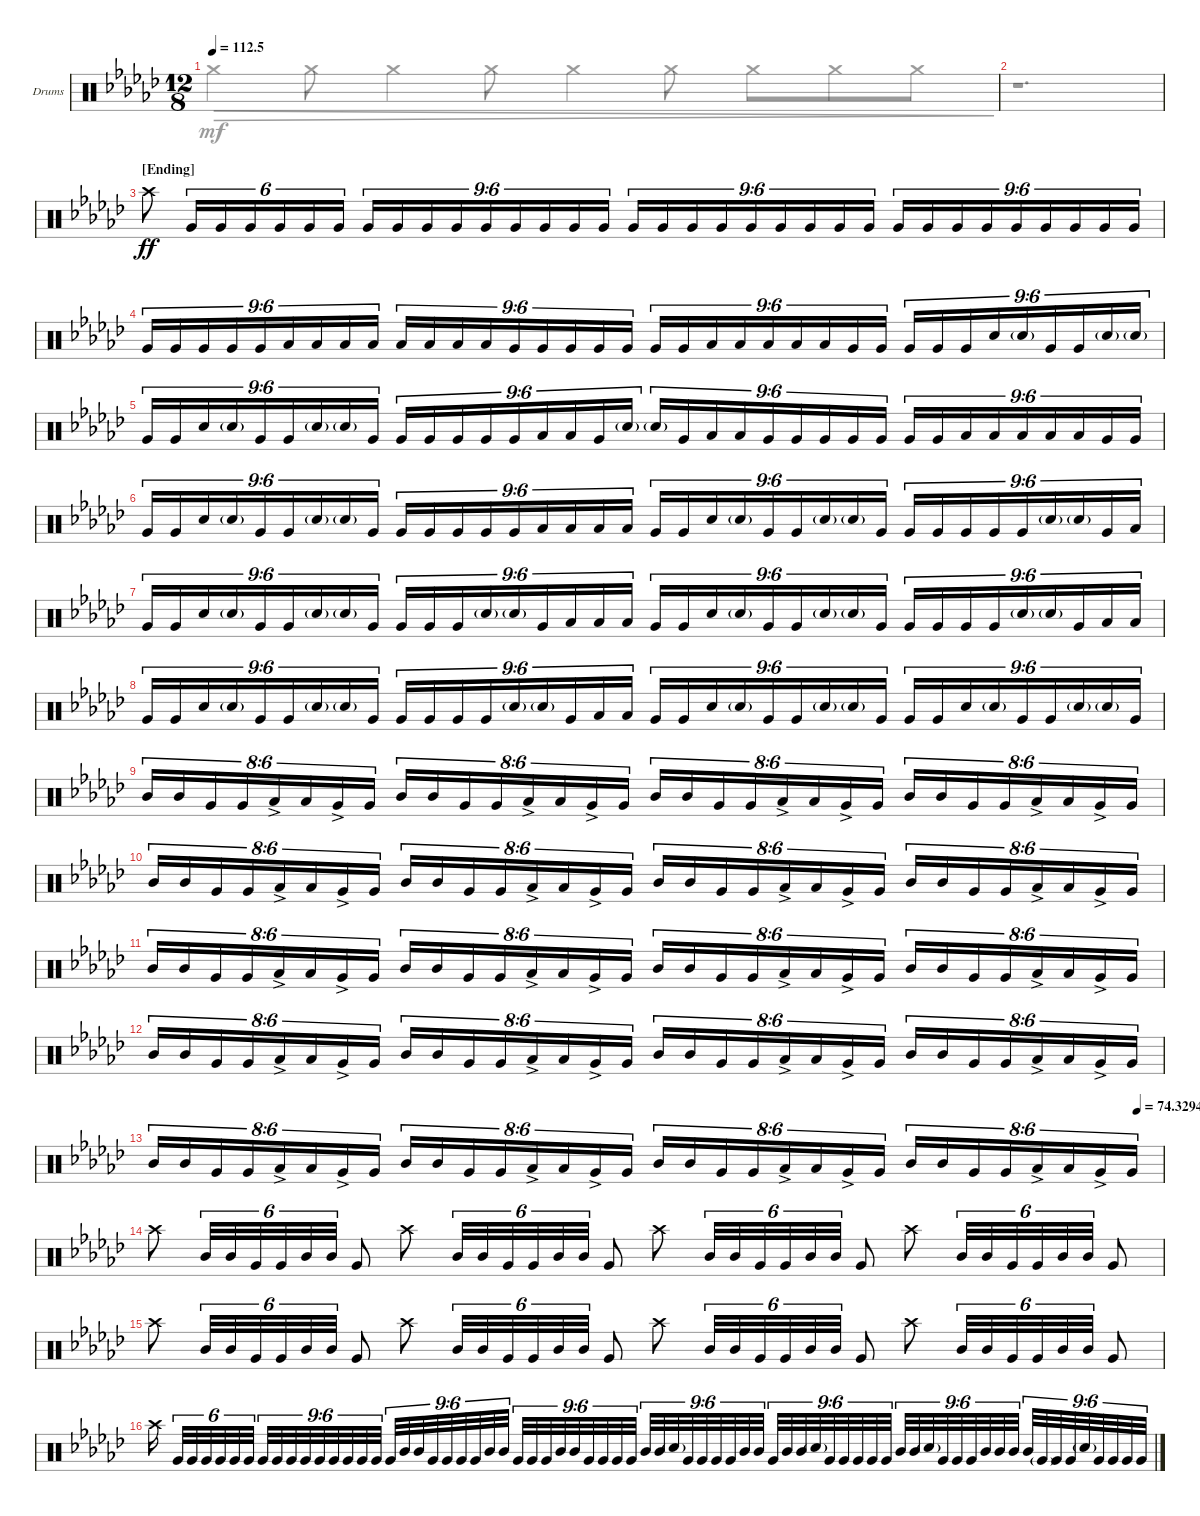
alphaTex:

\bracketExtendMode groupsimilarinstruments
\firstSystemTrackNameOrientation horizontal
\otherSystemsTrackNameOrientation horizontal
\track ("Drumkit" "Drums") {instrument percussion}
\staff {score}
\articulation defaults
\voice
\ts (12 8)
\tempo
112.5
\accidentals auto
\clef neutral
\ottava regular
\simile none
\ks ebminor
|
|
\section ("" "[Ending]")
"Crash high (hit)".8{dy ff} "Very Low Tom (hit)".16{tu (6 4)} "Very Low Tom (hit)".16{tu (6 4)} "Very Low Tom (hit)".16{tu (6 4)} "Very Low Tom (hit)".16{tu (6 4)} "Very Low Tom (hit)".16{tu (6 4)} "Very Low Tom (hit)".16{tu (6 4)} "Very Low Tom (hit)".16{tu (9 6)} "Very Low Tom (hit)".16{tu (9 6)} "Very Low Tom (hit)".16{tu (9 6)} "Very Low Tom (hit)".16{tu (9 6)} "Very Low Tom (hit)".16{tu (9 6)} "Very Low Tom (hit)".16{tu (9 6)} "Very Low Tom (hit)".16{tu (9 6)} "Very Low Tom (hit)".16{tu (9 6)} "Very Low Tom (hit)".16{tu (9 6)} "Very Low Tom (hit)".16{tu (9 6)} "Very Low Tom (hit)".16{tu (9 6)} "Very Low Tom (hit)".16{tu (9 6)} "Very Low Tom (hit)".16{tu (9 6)} "Very Low Tom (hit)".16{tu (9 6)} "Very Low Tom (hit)".16{tu (9 6)} "Very Low Tom (hit)".16{tu (9 6)} "Very Low Tom (hit)".16{tu (9 6)} "Very Low Tom (hit)".16{tu (9 6)} "Very Low Tom (hit)".16{tu (9 6)} "Very Low Tom (hit)".16{tu (9 6)} "Very Low Tom (hit)".16{tu (9 6)} "Very Low Tom (hit)".16{tu (9 6)} "Very Low Tom (hit)".16{tu (9 6)} "Very Low Tom (hit)".16{tu (9 6)} "Very Low Tom (hit)".16{tu (9 6)} "Very Low Tom (hit)".16{tu (9 6)} "Very Low Tom (hit)".16{tu (9 6)} |
"Very Low Tom (hit)".16{tu (9 6)} "Very Low Tom (hit)".16{tu (9 6)} "Very Low Tom (hit)".16{tu (9 6)} "Very Low Tom (hit)".16{tu (9 6)} "Very Low Tom (hit)".16{tu (9 6)} "Low Tom (hit)".16{tu (9 6)} "Low Tom (hit)".16{tu (9 6)} "Low Tom (hit)".16{tu (9 6)} "Low Tom (hit)".16{tu (9 6)} "Low Tom (hit)".16{tu (9 6)} "Low Tom (hit)".16{tu (9 6)} "Low Tom (hit)".16{tu (9 6)} "Low Tom (hit)".16{tu (9 6)} "Very Low Tom (hit)".16{tu (9 6)} "Very Low Tom (hit)".16{tu (9 6)} "Very Low Tom (hit)".16{tu (9 6)} "Very Low Tom (hit)".16{tu (9 6)} "Very Low Tom (hit)".16{tu (9 6)} "Very Low Tom (hit)".16{tu (9 6)} "Very Low Tom (hit)".16{tu (9 6)} "Low Tom (hit)".16{tu (9 6)} "Low Tom (hit)".16{tu (9 6)} "Low Tom (hit)".16{tu (9 6)} "Low Tom (hit)".16{tu (9 6)} "Low Tom (hit)".16{tu (9 6)} "Very Low Tom (hit)".16{tu (9 6)} "Very Low Tom (hit)".16{tu (9 6)} "Very Low Tom (hit)".16{tu (9 6)} "Very Low Tom (hit)".16{tu (9 6)} "Very Low Tom (hit)".16{tu (9 6)} "Snare (hit) 2".16{tu (9 6)} "Snare (hit) 2"{g}.16{tu (9 6)} "Very Low Tom (hit)".16{tu (9 6)} "Very Low Tom (hit)".16{tu (9 6)} "Snare (hit) 2"{g}.16{tu (9 6)} "Snare (hit) 2"{g}.16{tu (9 6)} |
"Very Low Tom (hit)".16{tu (9 6)} "Very Low Tom (hit)".16{tu (9 6)} "Snare (hit) 2".16{tu (9 6)} "Snare (hit) 2"{g}.16{tu (9 6)} "Very Low Tom (hit)".16{tu (9 6)} "Very Low Tom (hit)".16{tu (9 6)} "Snare (hit) 2"{g}.16{tu (9 6)} "Snare (hit) 2"{g}.16{tu (9 6)} "Very Low Tom (hit)".16{tu (9 6)} "Very Low Tom (hit)".16{tu (9 6)} "Very Low Tom (hit)".16{tu (9 6)} "Very Low Tom (hit)".16{tu (9 6)} "Very Low Tom (hit)".16{tu (9 6)} "Very Low Tom (hit)".16{tu (9 6)} "Low Tom (hit)".16{tu (9 6)} "Low Tom (hit)".16{tu (9 6)} "Very Low Tom (hit)".16{tu (9 6)} "Snare (hit) 2"{g}.16{tu (9 6)} "Snare (hit) 2"{g}.16{tu (9 6)} "Very Low Tom (hit)".16{tu (9 6)} "Low Tom (hit)".16{tu (9 6)} "Low Tom (hit)".16{tu (9 6)} "Very Low Tom (hit)".16{tu (9 6)} "Very Low Tom (hit)".16{tu (9 6)} "Very Low Tom (hit)".16{tu (9 6)} "Very Low Tom (hit)".16{tu (9 6)} "Very Low Tom (hit)".16{tu (9 6)} "Very Low Tom (hit)".16{tu (9 6)} "Very Low Tom (hit)".16{tu (9 6)} "Low Tom (hit)".16{tu (9 6)} "Low Tom (hit)".16{tu (9 6)} "Low Tom (hit)".16{tu (9 6)} "Low Tom (hit)".16{tu (9 6)} "Low Tom (hit)".16{tu (9 6)} "Very Low Tom (hit)".16{tu (9 6)} "Very Low Tom (hit)".16{tu (9 6)} |
"Very Low Tom (hit)".16{tu (9 6)} "Very Low Tom (hit)".16{tu (9 6)} "Snare (hit) 2".16{tu (9 6)} "Snare (hit) 2"{g}.16{tu (9 6)} "Very Low Tom (hit)".16{tu (9 6)} "Very Low Tom (hit)".16{tu (9 6)} "Snare (hit) 2"{g}.16{tu (9 6)} "Snare (hit) 2"{g}.16{tu (9 6)} "Very Low Tom (hit)".16{tu (9 6)} "Very Low Tom (hit)".16{tu (9 6)} "Very Low Tom (hit)".16{tu (9 6)} "Very Low Tom (hit)".16{tu (9 6)} "Very Low Tom (hit)".16{tu (9 6)} "Very Low Tom (hit)".16{tu (9 6)} "Low Tom (hit)".16{tu (9 6)} "Low Tom (hit)".16{tu (9 6)} "Low Tom (hit)".16{tu (9 6)} "Low Tom (hit)".16{tu (9 6)} "Very Low Tom (hit)".16{tu (9 6)} "Very Low Tom (hit)".16{tu (9 6)} "Snare (hit) 2".16{tu (9 6)} "Snare (hit) 2"{g}.16{tu (9 6)} "Very Low Tom (hit)".16{tu (9 6)} "Very Low Tom (hit)".16{tu (9 6)} "Snare (hit) 2"{g}.16{tu (9 6)} "Snare (hit) 2"{g}.16{tu (9 6)} "Very Low Tom (hit)".16{tu (9 6)} "Very Low Tom (hit)".16{tu (9 6)} "Very Low Tom (hit)".16{tu (9 6)} "Very Low Tom (hit)".16{tu (9 6)} "Very Low Tom (hit)".16{tu (9 6)} "Very Low Tom (hit)".16{tu (9 6)} "Snare (hit) 2"{g}.16{tu (9 6)} "Snare (hit) 2"{g}.16{tu (9 6)} "Very Low Tom (hit)".16{tu (9 6)} "Low Tom (hit)".16{tu (9 6)} |
"Very Low Tom (hit)".16{tu (9 6)} "Very Low Tom (hit)".16{tu (9 6)} "Snare (hit) 2".16{tu (9 6)} "Snare (hit) 2"{g}.16{tu (9 6)} "Very Low Tom (hit)".16{tu (9 6)} "Very Low Tom (hit)".16{tu (9 6)} "Snare (hit) 2"{g}.16{tu (9 6)} "Snare (hit) 2"{g}.16{tu (9 6)} "Very Low Tom (hit)".16{tu (9 6)} "Very Low Tom (hit)".16{tu (9 6)} "Very Low Tom (hit)".16{tu (9 6)} "Very Low Tom (hit)".16{tu (9 6)} "Snare (hit) 2"{g}.16{tu (9 6)} "Snare (hit) 2"{g}.16{tu (9 6)} "Very Low Tom (hit)".16{tu (9 6)} "Low Tom (hit)".16{tu (9 6)} "Low Tom (hit)".16{tu (9 6)} "Low Tom (hit)".16{tu (9 6)} "Very Low Tom (hit)".16{tu (9 6)} "Very Low Tom (hit)".16{tu (9 6)} "Snare (hit) 2".16{tu (9 6)} "Snare (hit) 2"{g}.16{tu (9 6)} "Very Low Tom (hit)".16{tu (9 6)} "Very Low Tom (hit)".16{tu (9 6)} "Snare (hit) 2"{g}.16{tu (9 6)} "Snare (hit) 2"{g}.16{tu (9 6)} "Very Low Tom (hit)".16{tu (9 6)} "Very Low Tom (hit)".16{tu (9 6)} "Very Low Tom (hit)".16{tu (9 6)} "Very Low Tom (hit)".16{tu (9 6)} "Very Low Tom (hit)".16{tu (9 6)} "Snare (hit) 2"{g}.16{tu (9 6)} "Snare (hit) 2"{g}.16{tu (9 6)} "Very Low Tom (hit)".16{tu (9 6)} "Low Tom (hit)".16{tu (9 6)} "Low Tom (hit)".16{tu (9 6)} |
"Very Low Tom (hit)".16{tu (9 6)} "Very Low Tom (hit)".16{tu (9 6)} "Snare (hit) 2".16{tu (9 6)} "Snare (hit) 2"{g}.16{tu (9 6)} "Very Low Tom (hit)".16{tu (9 6)} "Very Low Tom (hit)".16{tu (9 6)} "Snare (hit) 2"{g}.16{tu (9 6)} "Snare (hit) 2"{g}.16{tu (9 6)} "Very Low Tom (hit)".16{tu (9 6)} "Very Low Tom (hit)".16{tu (9 6)} "Very Low Tom (hit)".16{tu (9 6)} "Very Low Tom (hit)".16{tu (9 6)} "Very Low Tom (hit)".16{tu (9 6)} "Snare (hit) 2"{g}.16{tu (9 6)} "Snare (hit) 2"{g}.16{tu (9 6)} "Very Low Tom (hit)".16{tu (9 6)} "Low Tom (hit)".16{tu (9 6)} "Low Tom (hit)".16{tu (9 6)} "Very Low Tom (hit)".16{tu (9 6)} "Very Low Tom (hit)".16{tu (9 6)} "Snare (hit) 2".16{tu (9 6)} "Snare (hit) 2"{g}.16{tu (9 6)} "Very Low Tom (hit)".16{tu (9 6)} "Very Low Tom (hit)".16{tu (9 6)} "Snare (hit) 2"{g}.16{tu (9 6)} "Snare (hit) 2"{g}.16{tu (9 6)} "Very Low Tom (hit)".16{tu (9 6)} "Very Low Tom (hit)".16{tu (9 6)} "Very Low Tom (hit)".16{tu (9 6)} "Snare (hit) 2".16{tu (9 6)} "Snare (hit) 2"{g}.16{tu (9 6)} "Very Low Tom (hit)".16{tu (9 6)} "Very Low Tom (hit)".16{tu (9 6)} "Snare (hit) 2"{g}.16{tu (9 6)} "Snare (hit) 2"{g}.16{tu (9 6)} "Very Low Tom (hit)".16{tu (9 6)} |
"Mid Tom (hit)".16{tu (8 6)} "Mid Tom (hit)".16{tu (8 6)} "Very Low Tom (hit)".16{tu (8 6)} "Very Low Tom (hit)".16{tu (8 6)} "Low Tom (hit)"{ac}.16{tu (8 6)} "Low Tom (hit)".16{tu (8 6)} "Very Low Tom (hit)"{ac}.16{tu (8 6)} "Very Low Tom (hit)".16{tu (8 6)} "Mid Tom (hit)".16{tu (8 6)} "Mid Tom (hit)".16{tu (8 6)} "Very Low Tom (hit)".16{tu (8 6)} "Very Low Tom (hit)".16{tu (8 6)} "Low Tom (hit)"{ac}.16{tu (8 6)} "Low Tom (hit)".16{tu (8 6)} "Very Low Tom (hit)"{ac}.16{tu (8 6)} "Very Low Tom (hit)".16{tu (8 6)} "Mid Tom (hit)".16{tu (8 6)} "Mid Tom (hit)".16{tu (8 6)} "Very Low Tom (hit)".16{tu (8 6)} "Very Low Tom (hit)".16{tu (8 6)} "Low Tom (hit)"{ac}.16{tu (8 6)} "Low Tom (hit)".16{tu (8 6)} "Very Low Tom (hit)"{ac}.16{tu (8 6)} "Very Low Tom (hit)".16{tu (8 6)} "Mid Tom (hit)".16{tu (8 6)} "Mid Tom (hit)".16{tu (8 6)} "Very Low Tom (hit)".16{tu (8 6)} "Very Low Tom (hit)".16{tu (8 6)} "Low Tom (hit)"{ac}.16{tu (8 6)} "Low Tom (hit)".16{tu (8 6)} "Very Low Tom (hit)"{ac}.16{tu (8 6)} "Very Low Tom (hit)".16{tu (8 6)} |
"Mid Tom (hit)".16{tu (8 6)} "Mid Tom (hit)".16{tu (8 6)} "Very Low Tom (hit)".16{tu (8 6)} "Very Low Tom (hit)".16{tu (8 6)} "Low Tom (hit)"{ac}.16{tu (8 6)} "Low Tom (hit)".16{tu (8 6)} "Very Low Tom (hit)"{ac}.16{tu (8 6)} "Very Low Tom (hit)".16{tu (8 6)} "Mid Tom (hit)".16{tu (8 6)} "Mid Tom (hit)".16{tu (8 6)} "Very Low Tom (hit)".16{tu (8 6)} "Very Low Tom (hit)".16{tu (8 6)} "Low Tom (hit)"{ac}.16{tu (8 6)} "Low Tom (hit)".16{tu (8 6)} "Very Low Tom (hit)"{ac}.16{tu (8 6)} "Very Low Tom (hit)".16{tu (8 6)} "Mid Tom (hit)".16{tu (8 6)} "Mid Tom (hit)".16{tu (8 6)} "Very Low Tom (hit)".16{tu (8 6)} "Very Low Tom (hit)".16{tu (8 6)} "Low Tom (hit)"{ac}.16{tu (8 6)} "Low Tom (hit)".16{tu (8 6)} "Very Low Tom (hit)"{ac}.16{tu (8 6)} "Very Low Tom (hit)".16{tu (8 6)} "Mid Tom (hit)".16{tu (8 6)} "Mid Tom (hit)".16{tu (8 6)} "Very Low Tom (hit)".16{tu (8 6)} "Very Low Tom (hit)".16{tu (8 6)} "Low Tom (hit)"{ac}.16{tu (8 6)} "Low Tom (hit)".16{tu (8 6)} "Very Low Tom (hit)"{ac}.16{tu (8 6)} "Very Low Tom (hit)".16{tu (8 6)} |
"Mid Tom (hit)".16{tu (8 6)} "Mid Tom (hit)".16{tu (8 6)} "Very Low Tom (hit)".16{tu (8 6)} "Very Low Tom (hit)".16{tu (8 6)} "Low Tom (hit)"{ac}.16{tu (8 6)} "Low Tom (hit)".16{tu (8 6)} "Very Low Tom (hit)"{ac}.16{tu (8 6)} "Very Low Tom (hit)".16{tu (8 6)} "Mid Tom (hit)".16{tu (8 6)} "Mid Tom (hit)".16{tu (8 6)} "Very Low Tom (hit)".16{tu (8 6)} "Very Low Tom (hit)".16{tu (8 6)} "Low Tom (hit)"{ac}.16{tu (8 6)} "Low Tom (hit)".16{tu (8 6)} "Very Low Tom (hit)"{ac}.16{tu (8 6)} "Very Low Tom (hit)".16{tu (8 6)} "Mid Tom (hit)".16{tu (8 6)} "Mid Tom (hit)".16{tu (8 6)} "Very Low Tom (hit)".16{tu (8 6)} "Very Low Tom (hit)".16{tu (8 6)} "Low Tom (hit)"{ac}.16{tu (8 6)} "Low Tom (hit)".16{tu (8 6)} "Very Low Tom (hit)"{ac}.16{tu (8 6)} "Very Low Tom (hit)".16{tu (8 6)} "Mid Tom (hit)".16{tu (8 6)} "Mid Tom (hit)".16{tu (8 6)} "Very Low Tom (hit)".16{tu (8 6)} "Very Low Tom (hit)".16{tu (8 6)} "Low Tom (hit)"{ac}.16{tu (8 6)} "Low Tom (hit)".16{tu (8 6)} "Very Low Tom (hit)"{ac}.16{tu (8 6)} "Very Low Tom (hit)".16{tu (8 6)} |
"Mid Tom (hit)".16{tu (8 6)} "Mid Tom (hit)".16{tu (8 6)} "Very Low Tom (hit)".16{tu (8 6)} "Very Low Tom (hit)".16{tu (8 6)} "Low Tom (hit)"{ac}.16{tu (8 6)} "Low Tom (hit)".16{tu (8 6)} "Very Low Tom (hit)"{ac}.16{tu (8 6)} "Very Low Tom (hit)".16{tu (8 6)} "Mid Tom (hit)".16{tu (8 6)} "Mid Tom (hit)".16{tu (8 6)} "Very Low Tom (hit)".16{tu (8 6)} "Very Low Tom (hit)".16{tu (8 6)} "Low Tom (hit)"{ac}.16{tu (8 6)} "Low Tom (hit)".16{tu (8 6)} "Very Low Tom (hit)"{ac}.16{tu (8 6)} "Very Low Tom (hit)".16{tu (8 6)} "Mid Tom (hit)".16{tu (8 6)} "Mid Tom (hit)".16{tu (8 6)} "Very Low Tom (hit)".16{tu (8 6)} "Very Low Tom (hit)".16{tu (8 6)} "Low Tom (hit)"{ac}.16{tu (8 6)} "Low Tom (hit)".16{tu (8 6)} "Very Low Tom (hit)"{ac}.16{tu (8 6)} "Very Low Tom (hit)".16{tu (8 6)} "Mid Tom (hit)".16{tu (8 6)} "Mid Tom (hit)".16{tu (8 6)} "Very Low Tom (hit)".16{tu (8 6)} "Very Low Tom (hit)".16{tu (8 6)} "Low Tom (hit)"{ac}.16{tu (8 6)} "Low Tom (hit)".16{tu (8 6)} "Very Low Tom (hit)"{ac}.16{tu (8 6)} "Very Low Tom (hit)".16{tu (8 6)} |
\tempo (74.3294 0.975)
"Mid Tom (hit)".16{tu (8 6)} "Mid Tom (hit)".16{tu (8 6)} "Very Low Tom (hit)".16{tu (8 6)} "Very Low Tom (hit)".16{tu (8 6)} "Low Tom (hit)"{ac}.16{tu (8 6)} "Low Tom (hit)".16{tu (8 6)} "Very Low Tom (hit)"{ac}.16{tu (8 6)} "Very Low Tom (hit)".16{tu (8 6)} "Mid Tom (hit)".16{tu (8 6)} "Mid Tom (hit)".16{tu (8 6)} "Very Low Tom (hit)".16{tu (8 6)} "Very Low Tom (hit)".16{tu (8 6)} "Low Tom (hit)"{ac}.16{tu (8 6)} "Low Tom (hit)".16{tu (8 6)} "Very Low Tom (hit)"{ac}.16{tu (8 6)} "Very Low Tom (hit)".16{tu (8 6)} "Mid Tom (hit)".16{tu (8 6)} "Mid Tom (hit)".16{tu (8 6)} "Very Low Tom (hit)".16{tu (8 6)} "Very Low Tom (hit)".16{tu (8 6)} "Low Tom (hit)"{ac}.16{tu (8 6)} "Low Tom (hit)".16{tu (8 6)} "Very Low Tom (hit)"{ac}.16{tu (8 6)} "Very Low Tom (hit)".16{tu (8 6)} "Mid Tom (hit)".16{tu (8 6)} "Mid Tom (hit)".16{tu (8 6)} "Very Low Tom (hit)".16{tu (8 6)} "Very Low Tom (hit)".16{tu (8 6)} "Low Tom (hit)"{ac}.16{tu (8 6)} "Low Tom (hit)".16{tu (8 6)} "Very Low Tom (hit)"{ac}.16{tu (8 6)} "Very Low Tom (hit)".16{tu (8 6)} |
"Crash high (hit)".8 "Mid Tom (hit)".32{tu (6 4)} "Mid Tom (hit)".32{tu (6 4)} "Very Low Tom (hit)".32{tu (6 4)} "Very Low Tom (hit)".32{tu (6 4)} "Mid Tom (hit)".32{tu (6 4)} "Mid Tom (hit)".32{tu (6 4)} "Very Low Tom (hit)".8 "Crash high (hit)".8 "Mid Tom (hit)".32{tu (6 4)} "Mid Tom (hit)".32{tu (6 4)} "Very Low Tom (hit)".32{tu (6 4)} "Very Low Tom (hit)".32{tu (6 4)} "Mid Tom (hit)".32{tu (6 4)} "Mid Tom (hit)".32{tu (6 4)} "Very Low Tom (hit)".8 "Crash high (hit)".8 "Mid Tom (hit)".32{tu (6 4)} "Mid Tom (hit)".32{tu (6 4)} "Very Low Tom (hit)".32{tu (6 4)} "Very Low Tom (hit)".32{tu (6 4)} "Mid Tom (hit)".32{tu (6 4)} "Mid Tom (hit)".32{tu (6 4)} "Very Low Tom (hit)".8 "Crash high (hit)".8 "Mid Tom (hit)".32{tu (6 4)} "Mid Tom (hit)".32{tu (6 4)} "Very Low Tom (hit)".32{tu (6 4)} "Very Low Tom (hit)".32{tu (6 4)} "Mid Tom (hit)".32{tu (6 4)} "Mid Tom (hit)".32{tu (6 4)} "Very Low Tom (hit)".8 |
"Crash high (hit)".8 "Mid Tom (hit)".32{tu (6 4)} "Mid Tom (hit)".32{tu (6 4)} "Very Low Tom (hit)".32{tu (6 4)} "Very Low Tom (hit)".32{tu (6 4)} "Mid Tom (hit)".32{tu (6 4)} "Mid Tom (hit)".32{tu (6 4)} "Very Low Tom (hit)".8 "Crash high (hit)".8 "Mid Tom (hit)".32{tu (6 4)} "Mid Tom (hit)".32{tu (6 4)} "Very Low Tom (hit)".32{tu (6 4)} "Very Low Tom (hit)".32{tu (6 4)} "Mid Tom (hit)".32{tu (6 4)} "Mid Tom (hit)".32{tu (6 4)} "Very Low Tom (hit)".8 "Crash high (hit)".8 "Mid Tom (hit)".32{tu (6 4)} "Mid Tom (hit)".32{tu (6 4)} "Very Low Tom (hit)".32{tu (6 4)} "Very Low Tom (hit)".32{tu (6 4)} "Mid Tom (hit)".32{tu (6 4)} "Mid Tom (hit)".32{tu (6 4)} "Very Low Tom (hit)".8 "Crash high (hit)".8 "Mid Tom (hit)".32{tu (6 4)} "Mid Tom (hit)".32{tu (6 4)} "Very Low Tom (hit)".32{tu (6 4)} "Very Low Tom (hit)".32{tu (6 4)} "Mid Tom (hit)".32{tu (6 4)} "Mid Tom (hit)".32{tu (6 4)} "Very Low Tom (hit)".8 |
"Crash high (hit)".16 "Very Low Tom (hit)".32{tu (6 4)} "Very Low Tom (hit)".32{tu (6 4)} "Very Low Tom (hit)".32{tu (6 4)} "Very Low Tom (hit)".32{tu (6 4)} "Very Low Tom (hit)".32{tu (6 4)} "Very Low Tom (hit)".32{tu (6 4)} "Very Low Tom (hit)".32{tu (9 6)} "Very Low Tom (hit)".32{tu (9 6)} "Very Low Tom (hit)".32{tu (9 6)} "Very Low Tom (hit)".32{tu (9 6)} "Very Low Tom (hit)".32{tu (9 6)} "Very Low Tom (hit)".32{tu (9 6)} "Very Low Tom (hit)".32{tu (9 6)} "Very Low Tom (hit)".32{tu (9 6)} "Very Low Tom (hit)".32{tu (9 6)} "Very Low Tom (hit)".32{tu (9 6)} "Mid Tom (hit)".32{tu (9 6)} "Mid Tom (hit)".32{tu (9 6)} "Very Low Tom (hit)".32{tu (9 6)} "Very Low Tom (hit)".32{tu (9 6)} "Very Low Tom (hit)".32{tu (9 6)} "Very Low Tom (hit)".32{tu (9 6)} "Mid Tom (hit)".32{tu (9 6)} "Mid Tom (hit)".32{tu (9 6)} "Very Low Tom (hit)".32{tu (9 6)} "Very Low Tom (hit)".32{tu (9 6)} "Very Low Tom (hit)".32{tu (9 6)} "Mid Tom (hit)".32{tu (9 6)} "Mid Tom (hit)".32{tu (9 6)} "Very Low Tom (hit)".32{tu (9 6)} "Very Low Tom (hit)".32{tu (9 6)} "Very Low Tom (hit)".32{tu (9 6)} "Very Low Tom (hit)".32{tu (9 6)} "Mid Tom (hit)".32{tu (9 6)} "Mid Tom (hit)".32{tu (9 6)} "Snare (hit) 2"{g}.32{tu (9 6)} "Very Low Tom (hit)".32{tu (9 6)} "Very Low Tom (hit)".32{tu (9 6)} "Very Low Tom (hit)".32{tu (9 6)} "Very Low Tom (hit)".32{tu (9 6)} "Mid Tom (hit)".32{tu (9 6)} "Mid Tom (hit)".32{tu (9 6)} "Very Low Tom (hit)".32{tu (9 6)} "Mid Tom (hit)".32{tu (9 6)} "Mid Tom (hit)".32{tu (9 6)} "Snare (hit) 2"{g}.32{tu (9 6)} "Very Low Tom (hit)".32{tu (9 6)} "Very Low Tom (hit)".32{tu (9 6)} "Very Low Tom (hit)".32{tu (9 6)} "Very Low Tom (hit)".32{tu (9 6)} "Very Low Tom (hit)".32{tu (9 6)} "Mid Tom (hit)".32{tu (9 6)} "Mid Tom (hit)".32{tu (9 6)} "Snare (hit) 2"{g}.32{tu (9 6)} "Very Low Tom (hit)".32{tu (9 6)} "Very Low Tom (hit)".32{tu (9 6)} "Very Low Tom (hit)".32{tu (9 6)} "Mid Tom (hit)".32{tu (9 6)} "Mid Tom (hit)".32{tu (9 6)} "Mid Tom (hit)".32{tu (9 6)} "Mid Tom (hit)".32{tu (9 6)} "Very Low Tom (hit)"{g}.32{tu (9 6)} "Very Low Tom (hit)".32{tu (9 6)} "Very Low Tom (hit)".32{tu (9 6)} "Snare (hit) 2"{g}.32{tu (9 6)} "Very Low Tom (hit)".32{tu (9 6)} "Very Low Tom (hit)".32{tu (9 6)} "Very Low Tom (hit)".32{tu (9 6)} "Very Low Tom (hit)".32{tu (9 6)}
\voice
\clef neutral
\ottava regular
\simile none
\ks ebminor "Crash medium (hit)".4{dec dy mf} "Crash medium (hit)".8{dec} "Crash medium (hit)".4{dec} "Crash medium (hit)".8{dec} "Crash medium (hit)".4{dec} "Crash medium (hit)".8{dec} "Crash medium (hit)".8{dec} "Crash medium (hit)".8{dec} "Crash medium (hit)".8{dec}
|
r.1{d} |
|
|
|
|
|
|
|
|
|
|
|
|
|
